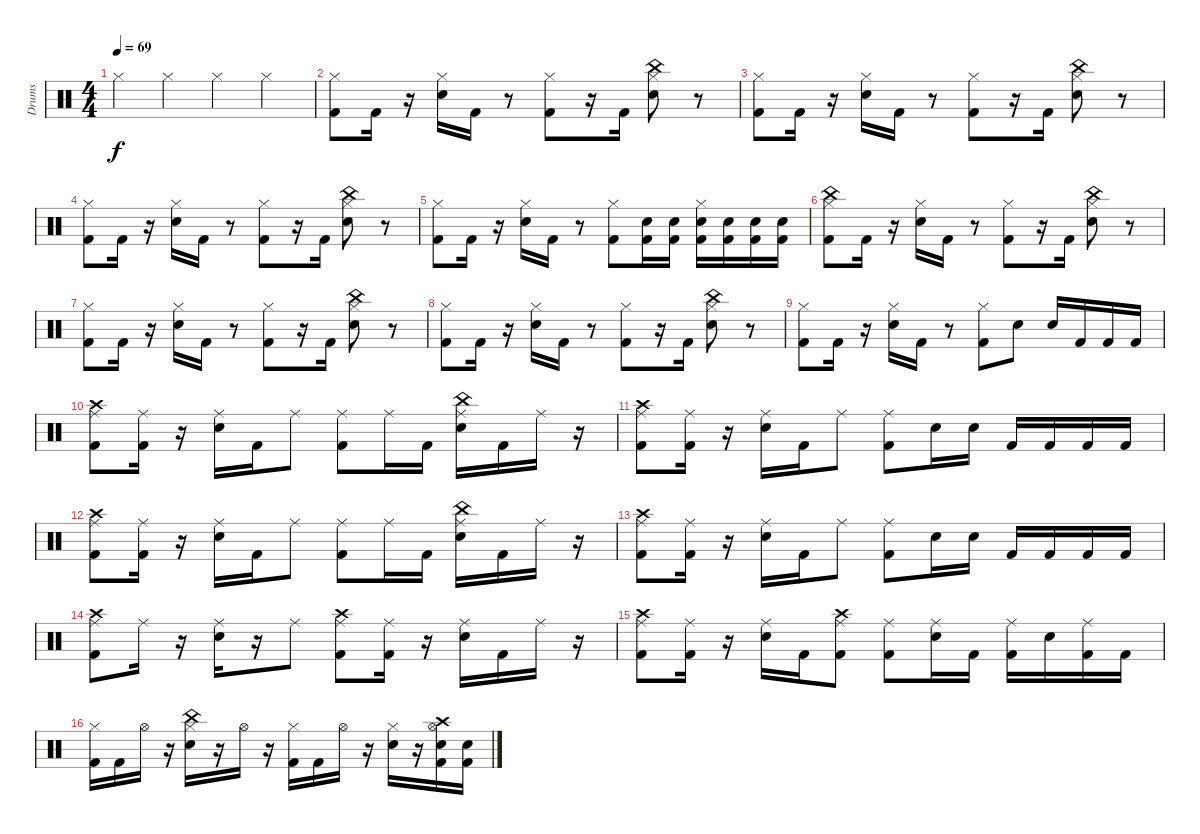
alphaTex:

\track ("Drums" "Drums") {instrument percussion}
\staff {score}
\articulation defaults
\ts (4 4)
\tempo 69
\clef neutral
\ks c "Hi-Hat (closed)".4{dy f} "Hi-Hat (closed)".4 "Hi-Hat (closed)".4 "Hi-Hat (closed)".4
|
("Hi-Hat (closed)" "Kick (hit) 2").8 "Kick (hit) 2".16 r.16 ("Hi-Hat (closed)" "Snare (hit) 2").16 "Kick (hit) 2".16 r.8 ("Hi-Hat (closed)" "Kick (hit) 2").8 r.16 "Kick (hit) 2".16 ("Hi-Hat (closed)" "Snare (hit) 2" "China (hit)").8 r.8 |
("Hi-Hat (closed)" "Kick (hit) 2").8 "Kick (hit) 2".16 r.16 ("Hi-Hat (closed)" "Snare (hit) 2").16 "Kick (hit) 2".16 r.8 ("Hi-Hat (closed)" "Kick (hit) 2").8 r.16 "Kick (hit) 2".16 ("Hi-Hat (closed)" "Snare (hit) 2" "China (hit)").8 r.8 |
("Hi-Hat (closed)" "Kick (hit) 2").8 "Kick (hit) 2".16 r.16 ("Hi-Hat (closed)" "Snare (hit) 2").16 "Kick (hit) 2".16 r.8 ("Hi-Hat (closed)" "Kick (hit) 2").8 r.16 "Kick (hit) 2".16 ("Hi-Hat (closed)" "Snare (hit) 2" "China (hit)").8 r.8 |
("Hi-Hat (closed)" "Kick (hit) 2").8 "Kick (hit) 2".16 r.16 ("Hi-Hat (closed)" "Snare (hit) 2").16 "Kick (hit) 2".16 r.8 ("Hi-Hat (closed)" "Kick (hit) 2").8 ("Kick (hit) 2" "Snare (hit) 2").16 ("Kick (hit) 2" "Snare (hit) 2").16 ("Hi-Hat (closed)" "Kick (hit) 2" "Snare (hit) 2").16 ("Kick (hit) 2" "Snare (hit) 2").16 ("Kick (hit) 2" "Snare (hit) 2").16 ("Kick (hit) 2" "Snare (hit) 2").16 |
("Hi-Hat (closed)" "Kick (hit) 2" "China (hit)").8 "Kick (hit) 2".16 r.16 ("Hi-Hat (closed)" "Snare (hit) 2").16 "Kick (hit) 2".16 r.8 ("Hi-Hat (closed)" "Kick (hit) 2").8 r.16 "Kick (hit) 2".16 ("Hi-Hat (closed)" "Snare (hit) 2" "China (hit)").8 r.8 |
("Hi-Hat (closed)" "Kick (hit) 2").8 "Kick (hit) 2".16 r.16 ("Hi-Hat (closed)" "Snare (hit) 2").16 "Kick (hit) 2".16 r.8 ("Hi-Hat (closed)" "Kick (hit) 2").8 r.16 "Kick (hit) 2".16 ("Hi-Hat (closed)" "Snare (hit) 2" "China (hit)").8 r.8 |
("Hi-Hat (closed)" "Kick (hit) 2").8 "Kick (hit) 2".16 r.16 ("Hi-Hat (closed)" "Snare (hit) 2").16 "Kick (hit) 2".16 r.8 ("Hi-Hat (closed)" "Kick (hit) 2").8 r.16 "Kick (hit) 2".16 ("Hi-Hat (closed)" "Snare (hit) 2" "China (hit)").8 r.8 |
("Hi-Hat (closed)" "Kick (hit) 2").8 "Kick (hit) 2".16 r.16 ("Hi-Hat (closed)" "Snare (hit) 2").16 "Kick (hit) 2".16 r.8 ("Hi-Hat (closed)" "Kick (hit) 2").8 "Snare (hit) 2".8 "Snare (hit) 2".16 "Kick (hit) 2".16 "Kick (hit) 2".16 "Kick (hit) 2".16 |
("Ride (middle)" "Kick (hit) 2" "Crash high (hit)").8 ("Ride (middle)" "Kick (hit) 2").16 r.16 ("Ride (middle)" "Snare (hit) 2").16 "Kick (hit) 2".16 "Ride (middle)".8 ("Ride (middle)" "Kick (hit) 2").8 "Ride (middle)".16 "Kick (hit) 2".16 ("Ride (middle)" "Snare (hit) 2" "China (hit)").16 "Kick (hit) 2".16 "Ride (middle)".16 r.16 |
("Ride (middle)" "Kick (hit) 2" "Crash high (hit)").8 ("Ride (middle)" "Kick (hit) 2").16 r.16 ("Ride (middle)" "Snare (hit) 2").16 "Kick (hit) 2".16 "Ride (middle)".8 ("Ride (middle)" "Kick (hit) 2").8 "Snare (hit) 2".16 "Snare (hit) 2".16 "Kick (hit) 2".16 "Kick (hit) 2".16 "Kick (hit) 2".16 "Kick (hit) 2".16 |
("Ride (middle)" "Kick (hit) 2" "Crash high (hit)").8 ("Ride (middle)" "Kick (hit) 2").16 r.16 ("Ride (middle)" "Snare (hit) 2").16 "Kick (hit) 2".16 "Ride (middle)".8 ("Ride (middle)" "Kick (hit) 2").8 "Ride (middle)".16 "Kick (hit) 2".16 ("Ride (middle)" "Snare (hit) 2" "China (hit)").16 "Kick (hit) 2".16 "Ride (middle)".16 r.16 |
("Ride (middle)" "Kick (hit) 2" "Crash high (hit)").8 ("Ride (middle)" "Kick (hit) 2").16 r.16 ("Ride (middle)" "Snare (hit) 2").16 "Kick (hit) 2".16 "Ride (middle)".8 ("Ride (middle)" "Kick (hit) 2").8 "Snare (hit) 2".16 "Snare (hit) 2".16 "Kick (hit) 2".16 "Kick (hit) 2".16 "Kick (hit) 2".16 "Kick (hit) 2".16 |
("Ride (middle)" "Kick (hit) 2" "Crash high (hit)").8 "Ride (middle)".16 r.16 ("Ride (middle)" "Snare (hit) 2").16 r.16 "Ride (middle)".8 ("Ride (middle)" "Kick (hit) 2" "Crash high (hit)").8 ("Ride (middle)" "Kick (hit) 2").16 r.16 ("Ride (middle)" "Snare (hit) 2").16 "Kick (hit) 2".16 "Ride (middle)".16 r.16 |
("Ride (middle)" "Kick (hit) 2" "Crash high (hit)").8 ("Ride (middle)" "Kick (hit) 2").16 r.16 ("Ride (middle)" "Snare (hit) 2").16 "Kick (hit) 2".16 ("Ride (middle)" "Kick (hit) 2" "Crash high (hit)").8 ("Ride (middle)" "Kick (hit) 2").8 ("Ride (middle)" "Snare (hit) 2").16 "Kick (hit) 2".16 ("Ride (middle)" "Kick (hit) 2").16 "Snare (hit) 2".16 ("Ride (middle)" "Kick (hit) 2").16 "Kick (hit) 2".16 |
("Hi-Hat (closed)" "Kick (hit) 2").16 "Kick (hit) 2".16 "Hi-Hat (open)".16 r.16 ("Hi-Hat (closed)" "Snare (hit) 2" "China (hit)").16 r.16 "Hi-Hat (open)".16 r.16 ("Hi-Hat (closed)" "Kick (hit) 2").16 "Kick (hit) 2".16 "Hi-Hat (open)".16 r.16 ("Hi-Hat (closed)" "Snare (hit) 2").16 r.16 ("Hi-Hat (open)" "Kick (hit) 2" "Snare (hit) 2" "Crash high (hit)").16 ("Kick (hit) 2" "Snare (hit) 2").16
